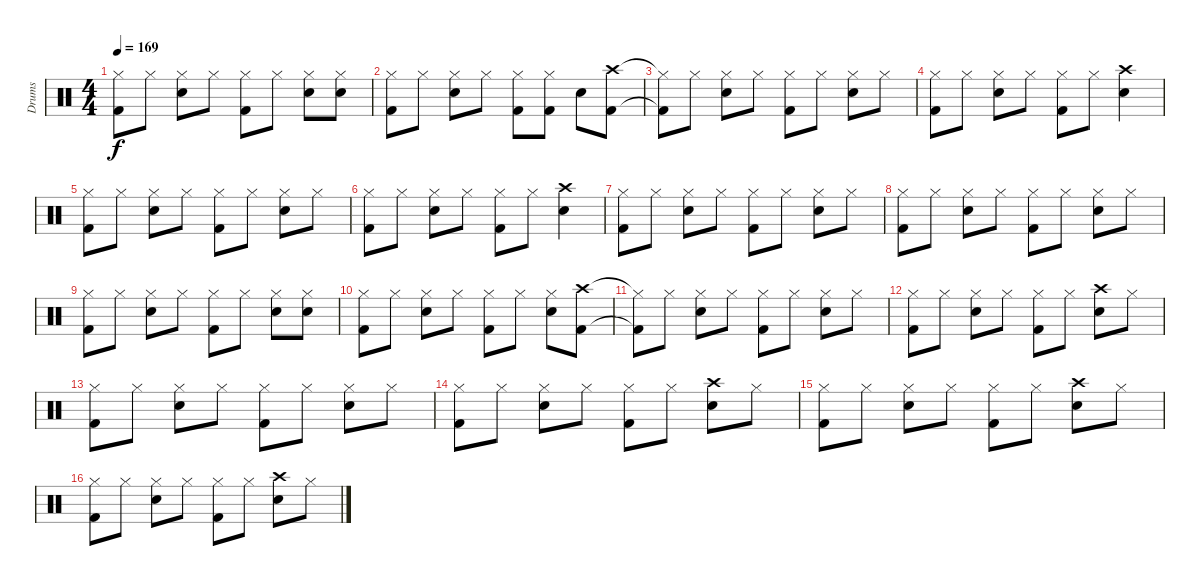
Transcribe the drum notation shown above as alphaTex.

\track ("Drums" "Drums") {instrument percussion}
\staff {score}
\articulation defaults
\ts (4 4)
\tempo 169
\clef neutral
\ks c
("Hi-Hat (closed)" "Kick (hit) 2").8{dy f} "Hi-Hat (closed)".8 ("Hi-Hat (closed)" "Snare (hit) 2").8 "Hi-Hat (closed)".8 ("Hi-Hat (closed)" "Kick (hit) 2").8 "Hi-Hat (closed)".8 ("Hi-Hat (closed)" "Snare (hit) 2").8 ("Hi-Hat (closed)" "Snare (hit) 2").8 |
("Hi-Hat (closed)" "Kick (hit) 2").8 "Hi-Hat (closed)".8 ("Hi-Hat (closed)" "Snare (hit) 2").8 "Hi-Hat (closed)".8 ("Hi-Hat (closed)" "Kick (hit) 2").8 ("Hi-Hat (closed)" "Kick (hit) 2").8 "Snare (hit) 2".8 ("Crash high (hit)" "Kick (hit) 2").8 |
("Hi-Hat (closed)"{t} "Kick (hit) 2"{t}).8 "Hi-Hat (closed)".8 ("Hi-Hat (closed)" "Snare (hit) 2").8 "Hi-Hat (closed)".8 ("Hi-Hat (closed)" "Kick (hit) 2").8 "Hi-Hat (closed)".8 ("Hi-Hat (closed)" "Snare (hit) 2").8 "Hi-Hat (closed)".8 |
("Hi-Hat (closed)" "Kick (hit) 2").8 "Hi-Hat (closed)".8 ("Hi-Hat (closed)" "Snare (hit) 2").8 "Hi-Hat (closed)".8 ("Hi-Hat (closed)" "Kick (hit) 2").8 "Hi-Hat (closed)".8 ("Crash high (hit)" "Snare (hit) 2").4 |
("Hi-Hat (closed)" "Kick (hit) 2").8 "Hi-Hat (closed)".8 ("Hi-Hat (closed)" "Snare (hit) 2").8 "Hi-Hat (closed)".8 ("Hi-Hat (closed)" "Kick (hit) 2").8 "Hi-Hat (closed)".8 ("Hi-Hat (closed)" "Snare (hit) 2").8 "Hi-Hat (closed)".8 |
("Hi-Hat (closed)" "Kick (hit) 2").8 "Hi-Hat (closed)".8 ("Hi-Hat (closed)" "Snare (hit) 2").8 "Hi-Hat (closed)".8 ("Hi-Hat (closed)" "Kick (hit) 2").8 "Hi-Hat (closed)".8 ("Crash high (hit)" "Snare (hit) 2").4 |
("Hi-Hat (closed)" "Kick (hit) 2").8 "Hi-Hat (closed)".8 ("Hi-Hat (closed)" "Snare (hit) 2").8 "Hi-Hat (closed)".8 ("Hi-Hat (closed)" "Kick (hit) 2").8 "Hi-Hat (closed)".8 ("Hi-Hat (closed)" "Snare (hit) 2").8 "Hi-Hat (closed)".8 |
("Hi-Hat (closed)" "Kick (hit) 2").8 "Hi-Hat (closed)".8 ("Hi-Hat (closed)" "Snare (hit) 2").8 "Hi-Hat (closed)".8 ("Hi-Hat (closed)" "Kick (hit) 2").8 "Hi-Hat (closed)".8 ("Hi-Hat (closed)" "Snare (hit) 2").8 "Hi-Hat (closed)".8 |
("Hi-Hat (closed)" "Kick (hit) 2").8 "Hi-Hat (closed)".8 ("Hi-Hat (closed)" "Snare (hit) 2").8 "Hi-Hat (closed)".8 ("Hi-Hat (closed)" "Kick (hit) 2").8 "Hi-Hat (closed)".8 ("Hi-Hat (closed)" "Snare (hit) 2").8 ("Hi-Hat (closed)" "Snare (hit) 2").8 |
("Hi-Hat (closed)" "Kick (hit) 2").8 "Hi-Hat (closed)".8 ("Hi-Hat (closed)" "Snare (hit) 2").8 "Hi-Hat (closed)".8 ("Hi-Hat (closed)" "Kick (hit) 2").8 "Hi-Hat (closed)".8 ("Hi-Hat (closed)" "Snare (hit) 2").8 ("Crash high (hit)" "Kick (hit) 2").8 |
("Hi-Hat (closed)"{t} "Kick (hit) 2"{t}).8 "Hi-Hat (closed)".8 ("Hi-Hat (closed)" "Snare (hit) 2").8 "Hi-Hat (closed)".8 ("Hi-Hat (closed)" "Kick (hit) 2").8 "Hi-Hat (closed)".8 ("Hi-Hat (closed)" "Snare (hit) 2").8 "Hi-Hat (closed)".8 |
("Hi-Hat (closed)" "Kick (hit) 2").8 "Hi-Hat (closed)".8 ("Hi-Hat (closed)" "Snare (hit) 2").8 "Hi-Hat (closed)".8 ("Hi-Hat (closed)" "Kick (hit) 2").8 "Hi-Hat (closed)".8 ("Crash high (hit)" "Snare (hit) 2").8 "Hi-Hat (closed)".8 |
("Hi-Hat (closed)" "Kick (hit) 2").8 "Hi-Hat (closed)".8 ("Hi-Hat (closed)" "Snare (hit) 2").8 "Hi-Hat (closed)".8 ("Hi-Hat (closed)" "Kick (hit) 2").8 "Hi-Hat (closed)".8 ("Hi-Hat (closed)" "Snare (hit) 2").8 "Hi-Hat (closed)".8 |
("Hi-Hat (closed)" "Kick (hit) 2").8 "Hi-Hat (closed)".8 ("Hi-Hat (closed)" "Snare (hit) 2").8 "Hi-Hat (closed)".8 ("Hi-Hat (closed)" "Kick (hit) 2").8 "Hi-Hat (closed)".8 ("Crash high (hit)" "Snare (hit) 2").8 "Hi-Hat (closed)".8 |
("Hi-Hat (closed)" "Kick (hit) 2").8 "Hi-Hat (closed)".8 ("Hi-Hat (closed)" "Snare (hit) 2").8 "Hi-Hat (closed)".8 ("Hi-Hat (closed)" "Kick (hit) 2").8 "Hi-Hat (closed)".8 ("Crash high (hit)" "Snare (hit) 2").8 "Hi-Hat (closed)".8 |
("Hi-Hat (closed)" "Kick (hit) 2").8 "Hi-Hat (closed)".8 ("Hi-Hat (closed)" "Snare (hit) 2").8 "Hi-Hat (closed)".8 ("Hi-Hat (closed)" "Kick (hit) 2").8 "Hi-Hat (closed)".8 ("Crash high (hit)" "Snare (hit) 2").8 "Hi-Hat (closed)".8
